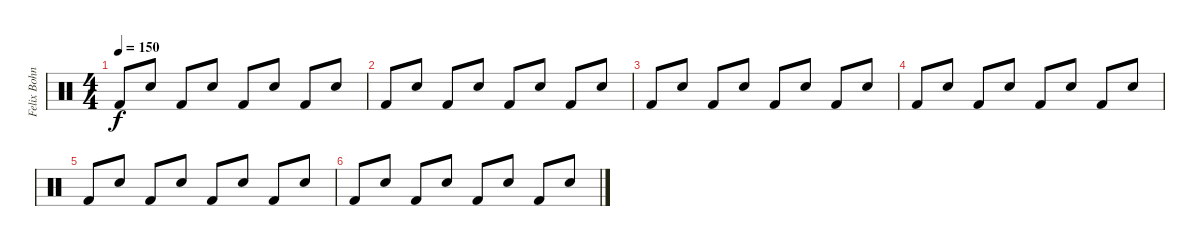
\track ("Felix Bohnke - Drums" "Felix Bohn") {mute instrument percussion}
\staff {score}
\articulation defaults
\ts (4 4)
\tempo 150
\clef neutral
\ks c "Kick (hit) 2".8{dy f} "Snare (hit) 2".8 "Kick (hit) 2".8 "Snare (hit) 2".8 "Kick (hit) 2".8 "Snare (hit) 2".8 "Kick (hit) 2".8 "Snare (hit) 2".8
|
"Kick (hit) 2".8 "Snare (hit) 2".8 "Kick (hit) 2".8 "Snare (hit) 2".8 "Kick (hit) 2".8 "Snare (hit) 2".8 "Kick (hit) 2".8 "Snare (hit) 2".8 |
"Kick (hit) 2".8 "Snare (hit) 2".8 "Kick (hit) 2".8 "Snare (hit) 2".8 "Kick (hit) 2".8 "Snare (hit) 2".8 "Kick (hit) 2".8 "Snare (hit) 2".8 |
"Kick (hit) 2".8 "Snare (hit) 2".8 "Kick (hit) 2".8 "Snare (hit) 2".8 "Kick (hit) 2".8 "Snare (hit) 2".8 "Kick (hit) 2".8 "Snare (hit) 2".8 |
"Kick (hit) 2".8 "Snare (hit) 2".8 "Kick (hit) 2".8 "Snare (hit) 2".8 "Kick (hit) 2".8 "Snare (hit) 2".8 "Kick (hit) 2".8 "Snare (hit) 2".8 |
"Kick (hit) 2".8 "Snare (hit) 2".8 "Kick (hit) 2".8 "Snare (hit) 2".8 "Kick (hit) 2".8 "Snare (hit) 2".8 "Kick (hit) 2".8 "Snare (hit) 2".8
